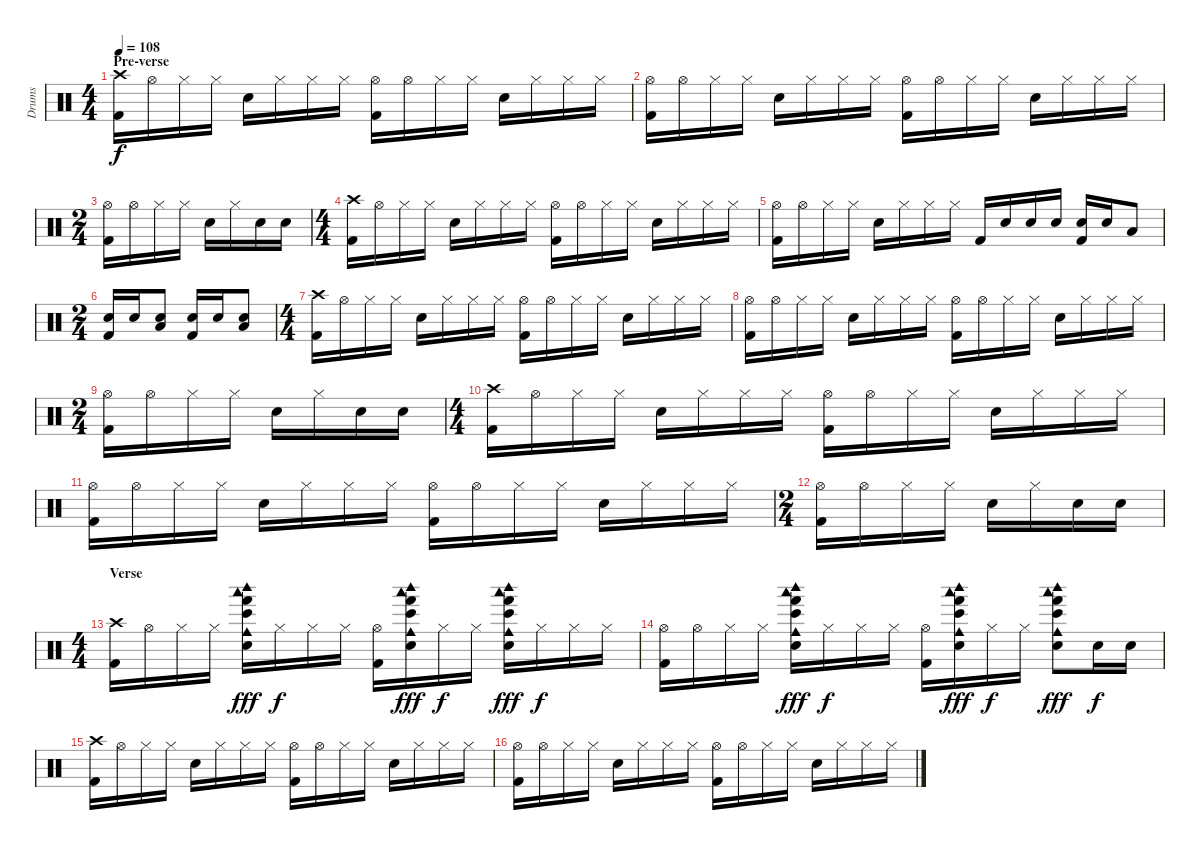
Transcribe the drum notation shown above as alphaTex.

\track ("Drums" "Drums") {instrument percussion}
\staff {score}
\articulation defaults
\ts (4 4)
\section ("" "Pre-verse")
\tempo 108
\clef neutral
\ks c
("Crash high (hit)" "Kick (hit) 2").16{dy f} "Hi-Hat (open)".16 "Hi-Hat (closed)".16 "Hi-Hat (closed)".16 "Electric Snare (hit)".16 "Hi-Hat (closed)".16 "Hi-Hat (closed)".16 "Hi-Hat (closed)".16 ("Hi-Hat (open)" "Kick (hit) 2").16 "Hi-Hat (open)".16 "Hi-Hat (closed)".16 "Hi-Hat (closed)".16 "Electric Snare (hit)".16 "Hi-Hat (closed)".16 "Hi-Hat (closed)".16 "Hi-Hat (closed)".16 |
("Hi-Hat (open)" "Kick (hit) 2").16 "Hi-Hat (open)".16 "Hi-Hat (closed)".16 "Hi-Hat (closed)".16 "Electric Snare (hit)".16 "Hi-Hat (closed)".16 "Hi-Hat (closed)".16 "Hi-Hat (closed)".16 ("Hi-Hat (open)" "Kick (hit) 2").16 "Hi-Hat (open)".16 "Hi-Hat (closed)".16 "Hi-Hat (closed)".16 "Electric Snare (hit)".16 "Hi-Hat (closed)".16 "Hi-Hat (closed)".16 "Hi-Hat (closed)".16 |
\ts (2 4)
("Hi-Hat (open)" "Kick (hit) 2").16 "Hi-Hat (open)".16 "Hi-Hat (closed)".16 "Hi-Hat (closed)".16 "Electric Snare (hit)".16 "Hi-Hat (closed)".16 "Electric Snare (hit)".16 "Electric Snare (hit)".16 |
\ts (4 4)
("Crash high (hit)" "Kick (hit) 2").16 "Hi-Hat (open)".16 "Hi-Hat (closed)".16 "Hi-Hat (closed)".16 "Electric Snare (hit)".16 "Hi-Hat (closed)".16 "Hi-Hat (closed)".16 "Hi-Hat (closed)".16 ("Hi-Hat (open)" "Kick (hit) 2").16 "Hi-Hat (open)".16 "Hi-Hat (closed)".16 "Hi-Hat (closed)".16 "Electric Snare (hit)".16 "Hi-Hat (closed)".16 "Hi-Hat (closed)".16 "Hi-Hat (closed)".16 |
("Hi-Hat (open)" "Kick (hit) 2").16 "Hi-Hat (open)".16 "Hi-Hat (closed)".16 "Hi-Hat (closed)".16 "Electric Snare (hit)".16 "Hi-Hat (closed)".16 "Hi-Hat (closed)".16 "Hi-Hat (closed)".16 "Kick (hit) 2".16 "Electric Snare (hit)".16 "Electric Snare (hit)".16 "Electric Snare (hit)".16 ("Electric Snare (hit)" "Kick (hit) 2").16 "Electric Snare (hit)".16 "Low Floor Tom (hit)".8 |
\ts (2 4)
("Electric Snare (hit)" "Kick (hit) 2").16 "Electric Snare (hit)".16 ("Low Floor Tom (hit)" "Electric Snare (hit)").8 ("Electric Snare (hit)" "Kick (hit) 2").16 "Electric Snare (hit)".16 ("Low Floor Tom (hit)" "Electric Snare (hit)").8 |
\ts (4 4)
("Crash high (hit)" "Kick (hit) 2").16 "Hi-Hat (open)".16 "Hi-Hat (closed)".16 "Hi-Hat (closed)".16 "Electric Snare (hit)".16 "Hi-Hat (closed)".16 "Hi-Hat (closed)".16 "Hi-Hat (closed)".16 ("Hi-Hat (open)" "Kick (hit) 2").16 "Hi-Hat (open)".16 "Hi-Hat (closed)".16 "Hi-Hat (closed)".16 "Electric Snare (hit)".16 "Hi-Hat (closed)".16 "Hi-Hat (closed)".16 "Hi-Hat (closed)".16 |
("Hi-Hat (open)" "Kick (hit) 2").16 "Hi-Hat (open)".16 "Hi-Hat (closed)".16 "Hi-Hat (closed)".16 "Electric Snare (hit)".16 "Hi-Hat (closed)".16 "Hi-Hat (closed)".16 "Hi-Hat (closed)".16 ("Hi-Hat (open)" "Kick (hit) 2").16 "Hi-Hat (open)".16 "Hi-Hat (closed)".16 "Hi-Hat (closed)".16 "Electric Snare (hit)".16 "Hi-Hat (closed)".16 "Hi-Hat (closed)".16 "Hi-Hat (closed)".16 |
\ts (2 4)
("Hi-Hat (open)" "Kick (hit) 2").16 "Hi-Hat (open)".16 "Hi-Hat (closed)".16 "Hi-Hat (closed)".16 "Electric Snare (hit)".16 "Hi-Hat (closed)".16 "Electric Snare (hit)".16 "Electric Snare (hit)".16 |
\ts (4 4)
("Crash high (hit)" "Kick (hit) 2").16 "Hi-Hat (open)".16 "Hi-Hat (closed)".16 "Hi-Hat (closed)".16 "Electric Snare (hit)".16 "Hi-Hat (closed)".16 "Hi-Hat (closed)".16 "Hi-Hat (closed)".16 ("Hi-Hat (open)" "Kick (hit) 2").16 "Hi-Hat (open)".16 "Hi-Hat (closed)".16 "Hi-Hat (closed)".16 "Electric Snare (hit)".16 "Hi-Hat (closed)".16 "Hi-Hat (closed)".16 "Hi-Hat (closed)".16 |
("Hi-Hat (open)" "Kick (hit) 2").16 "Hi-Hat (open)".16 "Hi-Hat (closed)".16 "Hi-Hat (closed)".16 "Electric Snare (hit)".16 "Hi-Hat (closed)".16 "Hi-Hat (closed)".16 "Hi-Hat (closed)".16 ("Hi-Hat (open)" "Kick (hit) 2").16 "Hi-Hat (open)".16 "Hi-Hat (closed)".16 "Hi-Hat (closed)".16 "Electric Snare (hit)".16 "Hi-Hat (closed)".16 "Hi-Hat (closed)".16 "Hi-Hat (closed)".16 |
\ts (2 4)
("Hi-Hat (open)" "Kick (hit) 2").16 "Hi-Hat (open)".16 "Hi-Hat (closed)".16 "Hi-Hat (closed)".16 "Electric Snare (hit)".16 "Hi-Hat (closed)".16 "Electric Snare (hit)".16 "Electric Snare (hit)".16 |
\ts (4 4)
\section ("" "Verse")
("Crash high (hit)" "Kick (hit) 2").16 "Hi-Hat (open)".16 "Hi-Hat (closed)".16 "Hi-Hat (closed)".16 ("Woodblock low (hit)" "Woodblock high (hit)" "Cowbell medium (hit)" "Electric Snare (hit)" "Hand (hit)" "Bongo High (hit)").16{dy fff} "Hi-Hat (closed)".16{dy f} "Hi-Hat (closed)".16 "Hi-Hat (closed)".16 ("Hi-Hat (open)" "Kick (hit) 2").16 ("Woodblock low (hit)" "Woodblock high (hit)" "Cowbell medium (hit)" "Electric Snare (hit)" "Hand (hit)" "Bongo High (hit)").16{dy fff} "Hi-Hat (closed)".16{dy f} "Hi-Hat (closed)".16 ("Woodblock low (hit)" "Woodblock high (hit)" "Cowbell medium (hit)" "Electric Snare (hit)" "Hand (hit)" "Bongo High (hit)").16{dy fff} "Hi-Hat (closed)".16{dy f} "Hi-Hat (closed)".16 "Hi-Hat (closed)".16 |
("Hi-Hat (open)" "Kick (hit) 2").16 "Hi-Hat (open)".16 "Hi-Hat (closed)".16 "Hi-Hat (closed)".16 ("Woodblock low (hit)" "Woodblock high (hit)" "Cowbell medium (hit)" "Electric Snare (hit)" "Hand (hit)" "Bongo High (hit)").16{dy fff} "Hi-Hat (closed)".16{dy f} "Hi-Hat (closed)".16 "Hi-Hat (closed)".16 ("Hi-Hat (open)" "Kick (hit) 2").16 ("Woodblock low (hit)" "Woodblock high (hit)" "Cowbell medium (hit)" "Electric Snare (hit)" "Hand (hit)" "Bongo High (hit)").16{dy fff} "Hi-Hat (closed)".16{dy f} "Hi-Hat (closed)".16 ("Woodblock low (hit)" "Woodblock high (hit)" "Cowbell medium (hit)" "Electric Snare (hit)" "Hand (hit)" "Bongo High (hit)").8{dy fff} "Electric Snare (hit)".16{dy f} "Electric Snare (hit)".16 |
("Crash high (hit)" "Kick (hit) 2").16 "Hi-Hat (open)".16 "Hi-Hat (closed)".16 "Hi-Hat (closed)".16 "Electric Snare (hit)".16 "Hi-Hat (closed)".16 "Hi-Hat (closed)".16 "Hi-Hat (closed)".16 ("Hi-Hat (open)" "Kick (hit) 2").16 "Hi-Hat (open)".16 "Hi-Hat (closed)".16 "Hi-Hat (closed)".16 "Electric Snare (hit)".16 "Hi-Hat (closed)".16 "Hi-Hat (closed)".16 "Hi-Hat (closed)".16 |
("Hi-Hat (open)" "Kick (hit) 2").16 "Hi-Hat (open)".16 "Hi-Hat (closed)".16 "Hi-Hat (closed)".16 "Electric Snare (hit)".16 "Hi-Hat (closed)".16 "Hi-Hat (closed)".16 "Hi-Hat (closed)".16 ("Hi-Hat (open)" "Kick (hit) 2").16 "Hi-Hat (open)".16 "Hi-Hat (closed)".16 "Hi-Hat (closed)".16 "Electric Snare (hit)".16 "Hi-Hat (closed)".16 "Hi-Hat (closed)".16 "Hi-Hat (closed)".16
